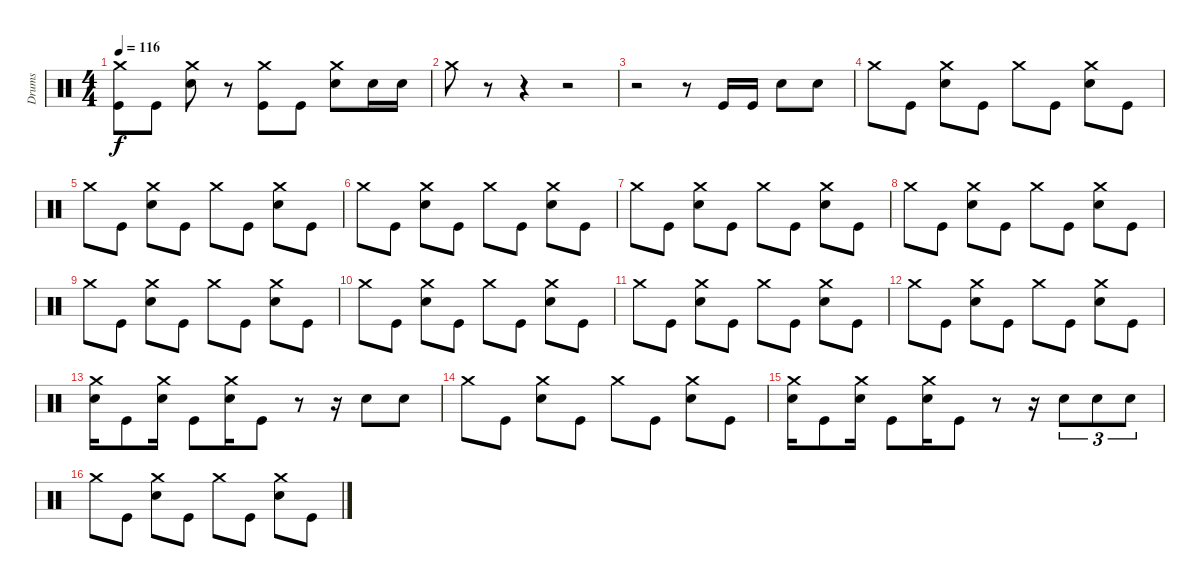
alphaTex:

\track ("Drums" "Drums") {instrument percussion}
\staff {score}
\articulation defaults
\ts (4 4)
\tempo 116
\clef neutral
\ks c
("Crash medium (hit)" "Kick (hit)").8{dy f} "Kick (hit)".8 ("Crash medium (hit)" "Snare (hit) 2").8 r.8 ("Crash medium (hit)" "Kick (hit)").8 "Kick (hit)".8 ("Crash medium (hit)" "Snare (hit) 2").8 "Snare (hit) 2".16 "Snare (hit) 2".16 |
"Crash medium (hit)".8 r.8 r.4 r.2 |
r.2 r.8 "Kick (hit)".16 "Kick (hit)".16 "Snare (hit) 2".8 "Snare (hit) 2".8 |
"Crash medium (hit)".8 "Kick (hit)".8 ("Crash medium (hit)" "Snare (hit) 2").8 "Kick (hit)".8 "Crash medium (hit)".8 "Kick (hit)".8 ("Crash medium (hit)" "Snare (hit) 2").8 "Kick (hit)".8 |
"Crash medium (hit)".8 "Kick (hit)".8 ("Crash medium (hit)" "Snare (hit) 2").8 "Kick (hit)".8 "Crash medium (hit)".8 "Kick (hit)".8 ("Crash medium (hit)" "Snare (hit) 2").8 "Kick (hit)".8 |
"Crash medium (hit)".8 "Kick (hit)".8 ("Crash medium (hit)" "Snare (hit) 2").8 "Kick (hit)".8 "Crash medium (hit)".8 "Kick (hit)".8 ("Crash medium (hit)" "Snare (hit) 2").8 "Kick (hit)".8 |
"Crash medium (hit)".8 "Kick (hit)".8 ("Crash medium (hit)" "Snare (hit) 2").8 "Kick (hit)".8 "Crash medium (hit)".8 "Kick (hit)".8 ("Crash medium (hit)" "Snare (hit) 2").8 "Kick (hit)".8 |
"Crash medium (hit)".8 "Kick (hit)".8 ("Crash medium (hit)" "Snare (hit) 2").8 "Kick (hit)".8 "Crash medium (hit)".8 "Kick (hit)".8 ("Crash medium (hit)" "Snare (hit) 2").8 "Kick (hit)".8 |
"Crash medium (hit)".8 "Kick (hit)".8 ("Crash medium (hit)" "Snare (hit) 2").8 "Kick (hit)".8 "Crash medium (hit)".8 "Kick (hit)".8 ("Crash medium (hit)" "Snare (hit) 2").8 "Kick (hit)".8 |
"Crash medium (hit)".8 "Kick (hit)".8 ("Crash medium (hit)" "Snare (hit) 2").8 "Kick (hit)".8 "Crash medium (hit)".8 "Kick (hit)".8 ("Crash medium (hit)" "Snare (hit) 2").8 "Kick (hit)".8 |
"Crash medium (hit)".8 "Kick (hit)".8 ("Crash medium (hit)" "Snare (hit) 2").8 "Kick (hit)".8 "Crash medium (hit)".8 "Kick (hit)".8 ("Crash medium (hit)" "Snare (hit) 2").8 "Kick (hit)".8 |
"Crash medium (hit)".8 "Kick (hit)".8 ("Crash medium (hit)" "Snare (hit) 2").8 "Kick (hit)".8 "Crash medium (hit)".8 "Kick (hit)".8 ("Crash medium (hit)" "Snare (hit) 2").8 "Kick (hit)".8 |
("Crash medium (hit)" "Snare (hit) 2").16 "Kick (hit)".8 ("Crash medium (hit)" "Snare (hit) 2").16 "Kick (hit)".8 ("Crash medium (hit)" "Snare (hit) 2").16 "Kick (hit)".8 r.8 r.16 "Snare (hit) 2".8 "Snare (hit) 2".8 |
"Crash medium (hit)".8 "Kick (hit)".8 ("Crash medium (hit)" "Snare (hit) 2").8 "Kick (hit)".8 "Crash medium (hit)".8 "Kick (hit)".8 ("Crash medium (hit)" "Snare (hit) 2").8 "Kick (hit)".8 |
("Crash medium (hit)" "Snare (hit) 2").16 "Kick (hit)".8 ("Crash medium (hit)" "Snare (hit) 2").16 "Kick (hit)".8 ("Crash medium (hit)" "Snare (hit) 2").16 "Kick (hit)".8 r.8 r.16 "Snare (hit) 2".8{tu (3 2)} "Snare (hit) 2".8{tu (3 2)} "Snare (hit) 2".8{tu (3 2)} |
"Crash medium (hit)".8 "Kick (hit)".8 ("Crash medium (hit)" "Snare (hit) 2").8 "Kick (hit)".8 "Crash medium (hit)".8 "Kick (hit)".8 ("Crash medium (hit)" "Snare (hit) 2").8 "Kick (hit)".8
